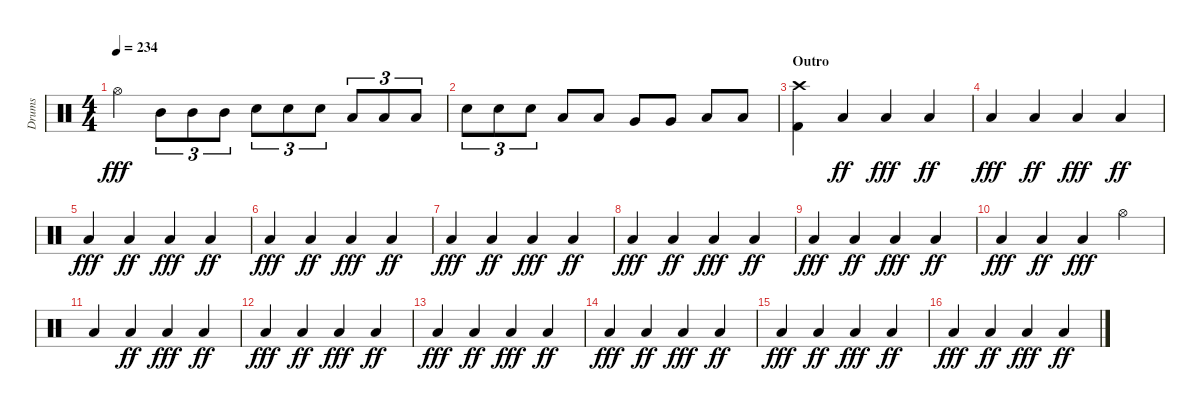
\track ("Drums" "Drums") {instrument percussion}
\staff {score}
\articulation defaults
\ts (4 4)
\tempo 234
\clef neutral
\ks aminor "Hi-Hat (open)".4{dy fff} "Mid Tom (hit)".8{tu (3 2)} "Mid Tom (hit)".8{tu (3 2)} "Mid Tom (hit)".8{tu (3 2)} "Snare (hit) 2".8{tu (3 2)} "Snare (hit) 2".8{tu (3 2)} "Snare (hit) 2".8{tu (3 2)} "Low Tom (hit)".8{tu (3 2)} "Low Tom (hit)".8{tu (3 2)} "Low Tom (hit)".8{tu (3 2)}
|
"Snare (hit) 2".8{tu (3 2)} "Snare (hit) 2".8{tu (3 2)} "Snare (hit) 2".8{tu (3 2)} "Low Tom (hit)".8 "Low Tom (hit)".8 "Very Low Tom (hit)".8 "Very Low Tom (hit)".8 "Low Floor Tom (hit)".8 "Low Floor Tom (hit)".8 |
\section ("" "Outro")
("Crash high (hit)" "Kick (hit) 2").4 "Low Floor Tom (hit)".4{dy ff} "Low Floor Tom (hit)".4{dy fff} "Low Floor Tom (hit)".4{dy ff} |
"Low Floor Tom (hit)".4{dy fff} "Low Floor Tom (hit)".4{dy ff} "Low Floor Tom (hit)".4{dy fff} "Low Floor Tom (hit)".4{dy ff} |
"Low Floor Tom (hit)".4{dy fff} "Low Floor Tom (hit)".4{dy ff} "Low Floor Tom (hit)".4{dy fff} "Low Floor Tom (hit)".4{dy ff} |
"Low Floor Tom (hit)".4{dy fff} "Low Floor Tom (hit)".4{dy ff} "Low Floor Tom (hit)".4{dy fff} "Low Floor Tom (hit)".4{dy ff} |
"Low Floor Tom (hit)".4{dy fff} "Low Floor Tom (hit)".4{dy ff} "Low Floor Tom (hit)".4{dy fff} "Low Floor Tom (hit)".4{dy ff} |
"Low Floor Tom (hit)".4{dy fff} "Low Floor Tom (hit)".4{dy ff} "Low Floor Tom (hit)".4{dy fff} "Low Floor Tom (hit)".4{dy ff} |
"Low Floor Tom (hit)".4{dy fff} "Low Floor Tom (hit)".4{dy ff} "Low Floor Tom (hit)".4{dy fff} "Low Floor Tom (hit)".4{dy ff} |
"Low Floor Tom (hit)".4{dy fff} "Low Floor Tom (hit)".4{dy ff} "Low Floor Tom (hit)".4{dy fff} "Hi-Hat (open)".4 |
"Low Floor Tom (hit)".4 "Low Floor Tom (hit)".4{dy ff} "Low Floor Tom (hit)".4{dy fff} "Low Floor Tom (hit)".4{dy ff} |
"Low Floor Tom (hit)".4{dy fff} "Low Floor Tom (hit)".4{dy ff} "Low Floor Tom (hit)".4{dy fff} "Low Floor Tom (hit)".4{dy ff} |
"Low Floor Tom (hit)".4{dy fff} "Low Floor Tom (hit)".4{dy ff} "Low Floor Tom (hit)".4{dy fff} "Low Floor Tom (hit)".4{dy ff} |
"Low Floor Tom (hit)".4{dy fff} "Low Floor Tom (hit)".4{dy ff} "Low Floor Tom (hit)".4{dy fff} "Low Floor Tom (hit)".4{dy ff} |
"Low Floor Tom (hit)".4{dy fff} "Low Floor Tom (hit)".4{dy ff} "Low Floor Tom (hit)".4{dy fff} "Low Floor Tom (hit)".4{dy ff} |
"Low Floor Tom (hit)".4{dy fff} "Low Floor Tom (hit)".4{dy ff} "Low Floor Tom (hit)".4{dy fff} "Low Floor Tom (hit)".4{dy ff}
